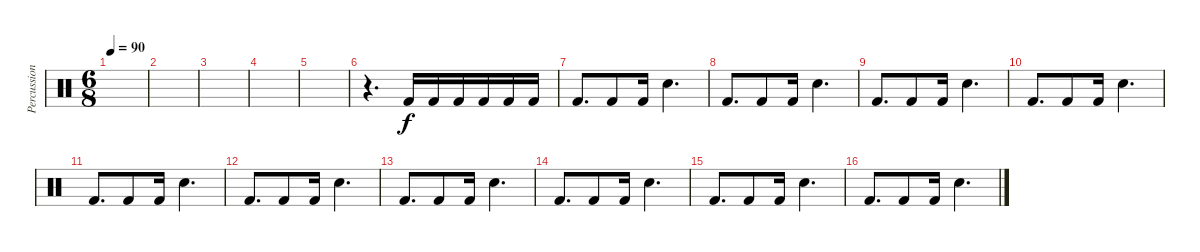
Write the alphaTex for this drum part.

\track ("Percussion" "Percussion") {instrument percussion}
\staff {score}
\articulation defaults
\ts (6 8)
\tempo 90
\clef neutral
\ks c
|
|
|
|
|
r.4{d} "Kick (hit) 2".16 "Kick (hit) 2".16 "Kick (hit) 2".16 "Kick (hit) 2".16 "Kick (hit) 2".16 "Kick (hit) 2".16 |
"Kick (hit) 2".8{d} "Kick (hit) 2".8 "Kick (hit) 2".16 "Electric Snare (hit)".4{d} |
"Kick (hit) 2".8{d} "Kick (hit) 2".8 "Kick (hit) 2".16 "Electric Snare (hit)".4{d} |
"Kick (hit) 2".8{d} "Kick (hit) 2".8 "Kick (hit) 2".16 "Electric Snare (hit)".4{d} |
"Kick (hit) 2".8{d} "Kick (hit) 2".8 "Kick (hit) 2".16 "Electric Snare (hit)".4{d} |
"Kick (hit) 2".8{d} "Kick (hit) 2".8 "Kick (hit) 2".16 "Electric Snare (hit)".4{d} |
"Kick (hit) 2".8{d} "Kick (hit) 2".8 "Kick (hit) 2".16 "Electric Snare (hit)".4{d} |
"Kick (hit) 2".8{d} "Kick (hit) 2".8 "Kick (hit) 2".16 "Electric Snare (hit)".4{d} |
"Kick (hit) 2".8{d} "Kick (hit) 2".8 "Kick (hit) 2".16 "Electric Snare (hit)".4{d} |
"Kick (hit) 2".8{d} "Kick (hit) 2".8 "Kick (hit) 2".16 "Electric Snare (hit)".4{d} |
"Kick (hit) 2".8{d} "Kick (hit) 2".8 "Kick (hit) 2".16 "Electric Snare (hit)".4{d}
